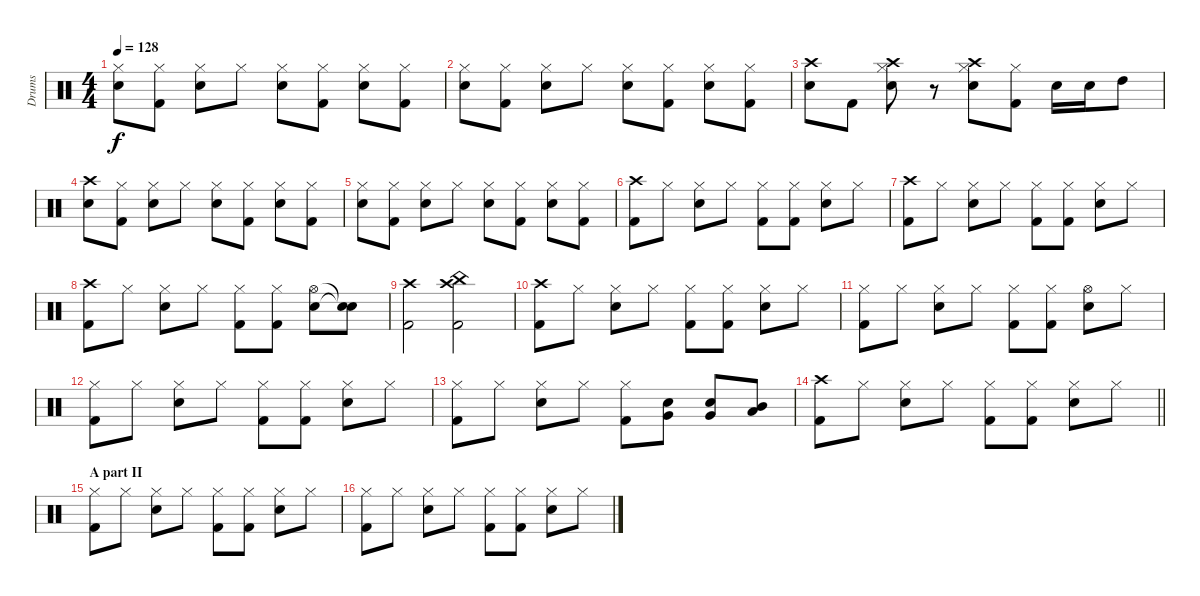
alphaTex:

\track ("Drums" "Drums") {instrument percussion}
\staff {score}
\articulation defaults
\ts (4 4)
\tempo 128
\clef neutral
\ks c
("Hi-Hat (closed)" "Snare (hit) 2").8{dy f} ("Hi-Hat (closed)" "Kick (hit) 2").8 ("Hi-Hat (closed)" "Snare (hit) 2").8 "Hi-Hat (closed)".8 ("Hi-Hat (closed)" "Snare (hit) 2").8 ("Hi-Hat (closed)" "Kick (hit) 2").8 ("Hi-Hat (closed)" "Snare (hit) 2").8 ("Hi-Hat (closed)" "Kick (hit) 2").8 |
("Hi-Hat (closed)" "Snare (hit) 2").8 ("Hi-Hat (closed)" "Kick (hit) 2").8 ("Hi-Hat (closed)" "Snare (hit) 2").8 "Hi-Hat (closed)".8 ("Hi-Hat (closed)" "Snare (hit) 2").8 ("Hi-Hat (closed)" "Kick (hit) 2").8 ("Hi-Hat (closed)" "Snare (hit) 2").8 ("Hi-Hat (closed)" "Kick (hit) 2").8 |
("Crash high (hit)" "Snare (hit) 2").8 "Kick (hit) 2".8 ("Crash high (hit)" "Hi-Hat (closed)" "Snare (hit) 2").8 r.8 ("Crash high (hit)" "Hi-Hat (closed)" "Snare (hit) 2").8 ("Hi-Hat (closed)" "Kick (hit) 2").8 "Snare (hit) 2".16 "Snare (hit) 2".16 "High Tom (hit)".8 |
("Crash high (hit)" "Snare (hit) 2").8 ("Hi-Hat (closed)" "Kick (hit) 2").8 ("Hi-Hat (closed)" "Snare (hit) 2").8 "Hi-Hat (closed)".8 ("Hi-Hat (closed)" "Snare (hit) 2").8 ("Hi-Hat (closed)" "Kick (hit) 2").8 ("Hi-Hat (closed)" "Snare (hit) 2").8 ("Hi-Hat (closed)" "Kick (hit) 2").8 |
("Hi-Hat (closed)" "Snare (hit) 2").8 ("Hi-Hat (closed)" "Kick (hit) 2").8 ("Hi-Hat (closed)" "Snare (hit) 2").8 "Hi-Hat (closed)".8 ("Hi-Hat (closed)" "Snare (hit) 2").8 ("Hi-Hat (closed)" "Kick (hit) 2").8 ("Hi-Hat (closed)" "Snare (hit) 2").8 ("Hi-Hat (closed)" "Kick (hit) 2").8 |
("Crash high (hit)" "Kick (hit) 2").8 "Hi-Hat (closed)".8 ("Hi-Hat (closed)" "Snare (hit) 2").8 "Hi-Hat (closed)".8 ("Hi-Hat (closed)" "Kick (hit) 2").8 ("Hi-Hat (closed)" "Kick (hit) 2").8 ("Hi-Hat (closed)" "Snare (hit) 2").8 "Hi-Hat (closed)".8 |
("Crash high (hit)" "Kick (hit) 2").8 "Hi-Hat (closed)".8 ("Hi-Hat (closed)" "Snare (hit) 2").8 "Hi-Hat (closed)".8 ("Hi-Hat (closed)" "Kick (hit) 2").8 ("Hi-Hat (closed)" "Kick (hit) 2").8 ("Hi-Hat (closed)" "Snare (hit) 2").8 "Hi-Hat (closed)".8 |
("Crash high (hit)" "Kick (hit) 2").8 "Hi-Hat (closed)".8 ("Hi-Hat (closed)" "Snare (hit) 2").8 "Hi-Hat (closed)".8 ("Hi-Hat (closed)" "Kick (hit) 2").8 ("Hi-Hat (closed)" "Kick (hit) 2").8 ("Hi-Hat (open)" "Snare (hit) 2").8 ("Snare (hit)"{t} "Snare (hit)"{t}).8 |
("Crash high (hit)" "Kick (hit) 2").2 ("Crash high (hit)" "China (hit)" "Kick (hit) 2").2 |
("Crash high (hit)" "Kick (hit) 2").8 "Hi-Hat (closed)".8 ("Hi-Hat (closed)" "Snare (hit) 2").8 "Hi-Hat (closed)".8 ("Hi-Hat (closed)" "Kick (hit) 2").8 ("Hi-Hat (closed)" "Kick (hit) 2").8 ("Hi-Hat (closed)" "Snare (hit) 2").8 "Hi-Hat (closed)".8 |
("Hi-Hat (closed)" "Kick (hit) 2").8 "Hi-Hat (closed)".8 ("Hi-Hat (closed)" "Snare (hit) 2").8 "Hi-Hat (closed)".8 ("Hi-Hat (closed)" "Kick (hit) 2").8 ("Hi-Hat (closed)" "Kick (hit) 2").8 ("Hi-Hat (open)" "Snare (hit) 2").8 "Hi-Hat (closed)".8 |
("Hi-Hat (closed)" "Kick (hit) 2").8 "Hi-Hat (closed)".8 ("Hi-Hat (closed)" "Snare (hit) 2").8 "Hi-Hat (closed)".8 ("Hi-Hat (closed)" "Kick (hit) 2").8 ("Hi-Hat (closed)" "Kick (hit) 2").8 ("Hi-Hat (closed)" "Snare (hit) 2").8 "Hi-Hat (closed)".8 |
("Hi-Hat (closed)" "Kick (hit) 2").8 "Hi-Hat (closed)".8 ("Hi-Hat (closed)" "Snare (hit) 2").8 "Hi-Hat (closed)".8 ("Hi-Hat (closed)" "Kick (hit) 2").8 ("Very Low Tom (hit)" "Snare (hit) 2").8 ("Very Low Tom (hit)" "Snare (hit) 2").8 ("Mid Tom (hit)" "Low Tom (hit)").8 |
\barLineRight lightlight
("Crash high (hit)" "Kick (hit) 2").8 "Hi-Hat (closed)".8 ("Hi-Hat (closed)" "Snare (hit) 2").8 "Hi-Hat (closed)".8 ("Hi-Hat (closed)" "Kick (hit) 2").8 ("Hi-Hat (closed)" "Kick (hit) 2").8 ("Hi-Hat (closed)" "Snare (hit) 2").8 "Hi-Hat (closed)".8 |
\section ("" "A part II")
("Hi-Hat (closed)" "Kick (hit) 2").8 "Hi-Hat (closed)".8 ("Hi-Hat (closed)" "Snare (hit) 2").8 "Hi-Hat (closed)".8 ("Hi-Hat (closed)" "Kick (hit) 2").8 ("Hi-Hat (closed)" "Kick (hit) 2").8 ("Hi-Hat (closed)" "Snare (hit) 2").8 "Hi-Hat (closed)".8 |
("Hi-Hat (closed)" "Kick (hit) 2").8 "Hi-Hat (closed)".8 ("Hi-Hat (closed)" "Snare (hit) 2").8 "Hi-Hat (closed)".8 ("Hi-Hat (closed)" "Kick (hit) 2").8 ("Hi-Hat (closed)" "Kick (hit) 2").8 ("Hi-Hat (closed)" "Snare (hit) 2").8 "Hi-Hat (closed)".8
